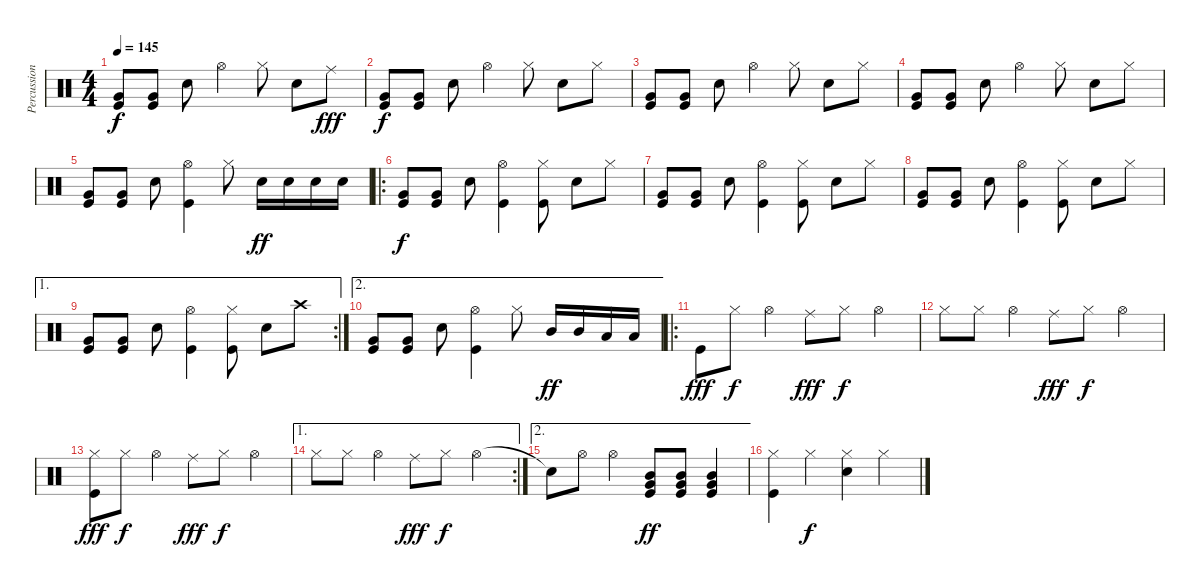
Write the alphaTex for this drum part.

\track ("Percussions" "Percussion") {instrument percussion}
\staff {score}
\articulation defaults
\ts (4 4)
\tempo 145
\clef neutral
\ks c
("Very Low Tom (hit)" "Kick (hit)").8{dy f} ("Very Low Tom (hit)" "Kick (hit)").8 "Snare (hit) 2".8 "Hi-Hat (open)".4 "Hi-Hat (closed)".8 "Snare (hit) 2".8 "Ride (middle)".8{dy fff} |
("Very Low Tom (hit)" "Kick (hit)").8{dy f} ("Very Low Tom (hit)" "Kick (hit)").8 "Snare (hit) 2".8 "Hi-Hat (open)".4 "Hi-Hat (closed)".8 "Snare (hit) 2".8 "Hi-Hat (closed)".8 |
("Very Low Tom (hit)" "Kick (hit)").8 ("Very Low Tom (hit)" "Kick (hit)").8 "Snare (hit) 2".8 "Hi-Hat (open)".4 "Hi-Hat (closed)".8 "Snare (hit) 2".8 "Hi-Hat (closed)".8 |
("Very Low Tom (hit)" "Kick (hit)").8 ("Very Low Tom (hit)" "Kick (hit)").8 "Snare (hit) 2".8 "Hi-Hat (open)".4 "Hi-Hat (closed)".8 "Snare (hit) 2".8 "Hi-Hat (closed)".8 |
("Very Low Tom (hit)" "Kick (hit)").8 ("Very Low Tom (hit)" "Kick (hit)").8 "Snare (hit) 2".8 ("Hi-Hat (open)" "Kick (hit)").4 "Hi-Hat (closed)".8 "Snare (hit) 2".16{dy ff} "Snare (hit) 2".16 "Snare (hit) 2".16 "Snare (hit) 2".16 |
\ro
("Very Low Tom (hit)" "Kick (hit)").8{dy f} ("Very Low Tom (hit)" "Kick (hit)").8 "Snare (hit) 2".8 ("Hi-Hat (open)" "Kick (hit)").4 ("Hi-Hat (closed)" "Kick (hit)").8 "Snare (hit) 2".8 "Hi-Hat (closed)".8 |
("Very Low Tom (hit)" "Kick (hit)").8 ("Very Low Tom (hit)" "Kick (hit)").8 "Snare (hit) 2".8 ("Hi-Hat (open)" "Kick (hit)").4 ("Hi-Hat (closed)" "Kick (hit)").8 "Snare (hit) 2".8 "Hi-Hat (closed)".8 |
("Very Low Tom (hit)" "Kick (hit)").8 ("Very Low Tom (hit)" "Kick (hit)").8 "Snare (hit) 2".8 ("Hi-Hat (open)" "Kick (hit)").4 ("Hi-Hat (closed)" "Kick (hit)").8 "Snare (hit) 2".8 "Hi-Hat (closed)".8 |
\ae 1
\rc 2
("Very Low Tom (hit)" "Kick (hit)").8 ("Very Low Tom (hit)" "Kick (hit)").8 "Snare (hit) 2".8 ("Hi-Hat (open)" "Kick (hit)").4 ("Hi-Hat (closed)" "Kick (hit)").8 "Snare (hit) 2".8 "Crash high (hit)".8 |
\ae 2
("Very Low Tom (hit)" "Kick (hit)").8 ("Very Low Tom (hit)" "Kick (hit)").8 "Snare (hit) 2".8 ("Hi-Hat (open)" "Kick (hit)").4 "Hi-Hat (closed)".8 "Mid Tom (hit)".16{dy ff} "Mid Tom (hit)".16 "Low Tom (hit)".16 "Low Tom (hit)".16 |
\ro "Kick (hit)".8{dy fff} "Hi-Hat (closed)".8{dy f} "Hi-Hat (open)".4 "Ride (middle)".8{dy fff} "Hi-Hat (closed)".8{dy f} "Hi-Hat (open)".4
|
"Hi-Hat (closed)".8 "Hi-Hat (closed)".8 "Hi-Hat (open)".4 "Ride (middle)".8{dy fff} "Hi-Hat (closed)".8{dy f} "Hi-Hat (open)".4 |
("Hi-Hat (closed)" "Kick (hit)").8{dy fff} "Hi-Hat (closed)".8{dy f} "Hi-Hat (open)".4 "Ride (middle)".8{dy fff} "Hi-Hat (closed)".8{dy f} "Hi-Hat (open)".4 |
\ae 1
\rc 2 "Hi-Hat (closed)".8 "Hi-Hat (closed)".8 "Hi-Hat (open)".4 "Ride (middle)".8{dy fff} "Hi-Hat (closed)".8{dy f} "Hi-Hat (open)".4
|
\ae 2 "Snare (hit)"{t}.8 "Hi-Hat (open)".8 "Hi-Hat (open)".4
("Mid Tom (hit)" "Very Low Tom (hit)" "Kick (hit)").8{dy ff} ("Mid Tom (hit)" "Very Low Tom (hit)" "Kick (hit)").8 ("Mid Tom (hit)" "Very Low Tom (hit)" "Kick (hit)").4 |
("Hi-Hat (closed)" "Kick (hit)").4 "Hi-Hat (closed)".4{dy f} ("Hi-Hat (closed)" "Snare (hit) 2").4 "Hi-Hat (closed)".4
